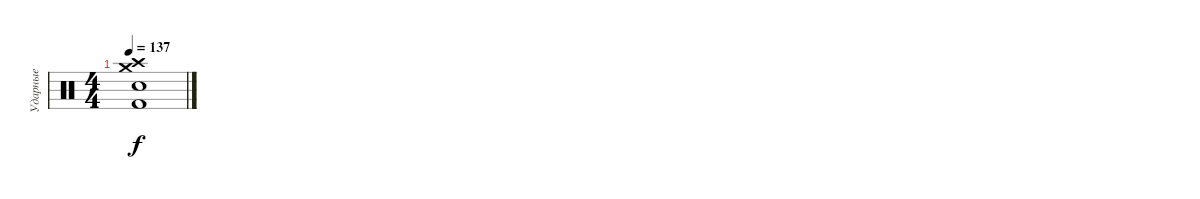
\track ("Ударные" "Ударные") {instrument percussion}
\staff {score}
\articulation defaults
\ts (4 4)
\tempo 137
\clef neutral
\ks c
("Crash medium (hit)" "Crash high (hit)" "Electric Snare (hit)" "Kick (hit) 2").1{dy f}
